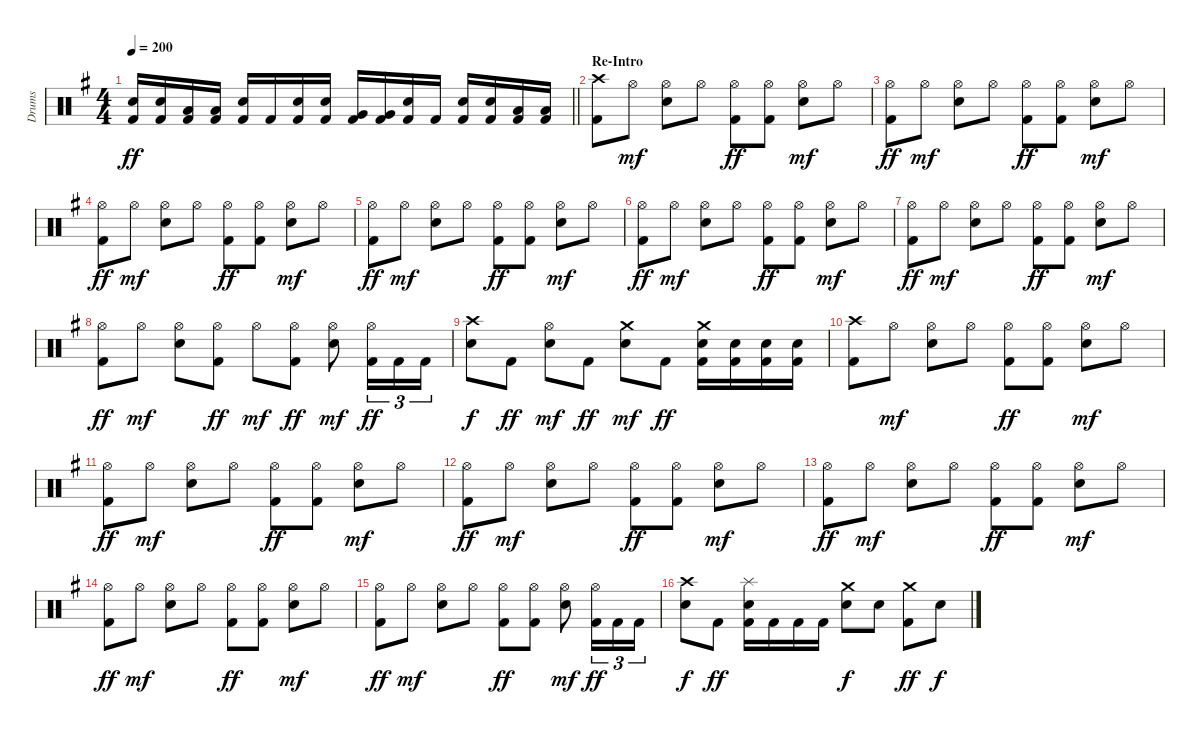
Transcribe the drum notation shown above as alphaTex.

\track ("Drums" "Drums") {instrument percussion}
\staff {score}
\articulation defaults
\ts (4 4)
\tempo 200
\clef neutral
\barLineRight lightlight
\ks g
("Snare (hit) 2" "Kick (hit) 2").16{dy ff} ("Snare (hit) 2" "Kick (hit) 2").16 ("Low Tom (hit)" "Kick (hit) 2").16 ("Low Tom (hit)" "Kick (hit) 2").16 ("Snare (hit) 2" "Kick (hit) 2").16 "Kick (hit) 2".16 ("Snare (hit) 2" "Kick (hit) 2").16 ("Snare (hit) 2" "Kick (hit) 2").16 ("Very Low Tom (hit)" "Kick (hit) 2").16 ("Very Low Tom (hit)" "Kick (hit) 2").16 ("Snare (hit) 2" "Kick (hit) 2").16 "Kick (hit) 2".16 ("Snare (hit) 2" "Kick (hit) 2").16 ("Snare (hit) 2" "Kick (hit) 2").16 ("Low Floor Tom (hit)" "Kick (hit) 2").16 ("Low Floor Tom (hit)" "Kick (hit) 2").16 |
\section ("" "Re-Intro")
("Crash high (hit)" "Kick (hit) 2").8 "Hi-Hat (open)".8{dy mf} ("Hi-Hat (open)" "Snare (hit) 2").8 "Hi-Hat (open)".8 ("Hi-Hat (open)" "Kick (hit) 2").8{dy ff} ("Hi-Hat (open)" "Kick (hit) 2").8 ("Hi-Hat (open)" "Snare (hit) 2").8{dy mf} "Hi-Hat (open)".8 |
("Hi-Hat (open)" "Kick (hit) 2").8{dy ff} "Hi-Hat (open)".8{dy mf} ("Hi-Hat (open)" "Snare (hit) 2").8 "Hi-Hat (open)".8 ("Hi-Hat (open)" "Kick (hit) 2").8{dy ff} ("Hi-Hat (open)" "Kick (hit) 2").8 ("Hi-Hat (open)" "Snare (hit) 2").8{dy mf} "Hi-Hat (open)".8 |
("Hi-Hat (open)" "Kick (hit) 2").8{dy ff} "Hi-Hat (open)".8{dy mf} ("Hi-Hat (open)" "Snare (hit) 2").8 "Hi-Hat (open)".8 ("Hi-Hat (open)" "Kick (hit) 2").8{dy ff} ("Hi-Hat (open)" "Kick (hit) 2").8 ("Hi-Hat (open)" "Snare (hit) 2").8{dy mf} "Hi-Hat (open)".8 |
("Hi-Hat (open)" "Kick (hit) 2").8{dy ff} "Hi-Hat (open)".8{dy mf} ("Hi-Hat (open)" "Snare (hit) 2").8 "Hi-Hat (open)".8 ("Hi-Hat (open)" "Kick (hit) 2").8{dy ff} ("Hi-Hat (open)" "Kick (hit) 2").8 ("Hi-Hat (open)" "Snare (hit) 2").8{dy mf} "Hi-Hat (open)".8 |
("Hi-Hat (open)" "Kick (hit) 2").8{dy ff} "Hi-Hat (open)".8{dy mf} ("Hi-Hat (open)" "Snare (hit) 2").8 "Hi-Hat (open)".8 ("Hi-Hat (open)" "Kick (hit) 2").8{dy ff} ("Hi-Hat (open)" "Kick (hit) 2").8 ("Hi-Hat (open)" "Snare (hit) 2").8{dy mf} "Hi-Hat (open)".8 |
("Hi-Hat (open)" "Kick (hit) 2").8{dy ff} "Hi-Hat (open)".8{dy mf} ("Hi-Hat (open)" "Snare (hit) 2").8 "Hi-Hat (open)".8 ("Hi-Hat (open)" "Kick (hit) 2").8{dy ff} ("Hi-Hat (open)" "Kick (hit) 2").8 ("Hi-Hat (open)" "Snare (hit) 2").8{dy mf} "Hi-Hat (open)".8 |
("Hi-Hat (open)" "Kick (hit) 2").8{dy ff} "Hi-Hat (open)".8{dy mf} ("Hi-Hat (open)" "Snare (hit) 2").8 ("Hi-Hat (open)" "Kick (hit) 2").8{dy ff} "Hi-Hat (open)".8{dy mf} ("Hi-Hat (open)" "Kick (hit) 2").8{dy ff} ("Hi-Hat (open)" "Snare (hit) 2").8{dy mf} ("Hi-Hat (open)" "Kick (hit) 2").16{tu (3 2) dy ff} "Kick (hit) 2".16{tu (3 2)} "Kick (hit) 2".16{tu (3 2)} |
("Crash high (hit)" "Snare (hit) 2").8{dy f} "Kick (hit) 2".8{dy ff} ("Hi-Hat (open)" "Snare (hit) 2").8{dy mf} "Kick (hit) 2".8{dy ff} ("Crash medium (hit)" "Snare (hit) 2").8{dy mf} "Kick (hit) 2".8{dy ff} ("Crash medium (hit)" "Snare (hit) 2" "Kick (hit) 2").16 ("Snare (hit) 2" "Kick (hit) 2").16 ("Snare (hit) 2" "Kick (hit) 2").16 ("Snare (hit) 2" "Kick (hit) 2").16 |
("Crash high (hit)" "Kick (hit) 2").8 "Hi-Hat (open)".8{dy mf} ("Hi-Hat (open)" "Snare (hit) 2").8 "Hi-Hat (open)".8 ("Hi-Hat (open)" "Kick (hit) 2").8{dy ff} ("Hi-Hat (open)" "Kick (hit) 2").8 ("Hi-Hat (open)" "Snare (hit) 2").8{dy mf} "Hi-Hat (open)".8 |
("Hi-Hat (open)" "Kick (hit) 2").8{dy ff} "Hi-Hat (open)".8{dy mf} ("Hi-Hat (open)" "Snare (hit) 2").8 "Hi-Hat (open)".8 ("Hi-Hat (open)" "Kick (hit) 2").8{dy ff} ("Hi-Hat (open)" "Kick (hit) 2").8 ("Hi-Hat (open)" "Snare (hit) 2").8{dy mf} "Hi-Hat (open)".8 |
("Hi-Hat (open)" "Kick (hit) 2").8{dy ff} "Hi-Hat (open)".8{dy mf} ("Hi-Hat (open)" "Snare (hit) 2").8 "Hi-Hat (open)".8 ("Hi-Hat (open)" "Kick (hit) 2").8{dy ff} ("Hi-Hat (open)" "Kick (hit) 2").8 ("Hi-Hat (open)" "Snare (hit) 2").8{dy mf} "Hi-Hat (open)".8 |
("Hi-Hat (open)" "Kick (hit) 2").8{dy ff} "Hi-Hat (open)".8{dy mf} ("Hi-Hat (open)" "Snare (hit) 2").8 "Hi-Hat (open)".8 ("Hi-Hat (open)" "Kick (hit) 2").8{dy ff} ("Hi-Hat (open)" "Kick (hit) 2").8 ("Hi-Hat (open)" "Snare (hit) 2").8{dy mf} "Hi-Hat (open)".8 |
("Hi-Hat (open)" "Kick (hit) 2").8{dy ff} "Hi-Hat (open)".8{dy mf} ("Hi-Hat (open)" "Snare (hit) 2").8 "Hi-Hat (open)".8 ("Hi-Hat (open)" "Kick (hit) 2").8{dy ff} ("Hi-Hat (open)" "Kick (hit) 2").8 ("Hi-Hat (open)" "Snare (hit) 2").8{dy mf} "Hi-Hat (open)".8 |
("Hi-Hat (open)" "Kick (hit) 2").8{dy ff} "Hi-Hat (open)".8{dy mf} ("Hi-Hat (open)" "Snare (hit) 2").8 "Hi-Hat (open)".8 ("Hi-Hat (open)" "Kick (hit) 2").8{dy ff} ("Hi-Hat (open)" "Kick (hit) 2").8 ("Hi-Hat (open)" "Snare (hit) 2").8{dy mf} ("Hi-Hat (open)" "Kick (hit) 2").16{tu (3 2) dy ff} "Kick (hit) 2".16{tu (3 2)} "Kick (hit) 2".16{tu (3 2)} |
("Crash high (hit)" "Snare (hit) 2").8{dy f} "Kick (hit) 2".8{dy ff} ("Splash (hit)" "Snare (hit) 2" "Kick (hit) 2").16 "Kick (hit) 2".16 "Kick (hit) 2".16 "Kick (hit) 2".16 ("Crash medium (hit)" "Snare (hit) 2").8{dy f} "Snare (hit) 2".8 ("Crash medium (hit)" "Kick (hit) 2").8{dy ff} "Snare (hit) 2".8{dy f}
